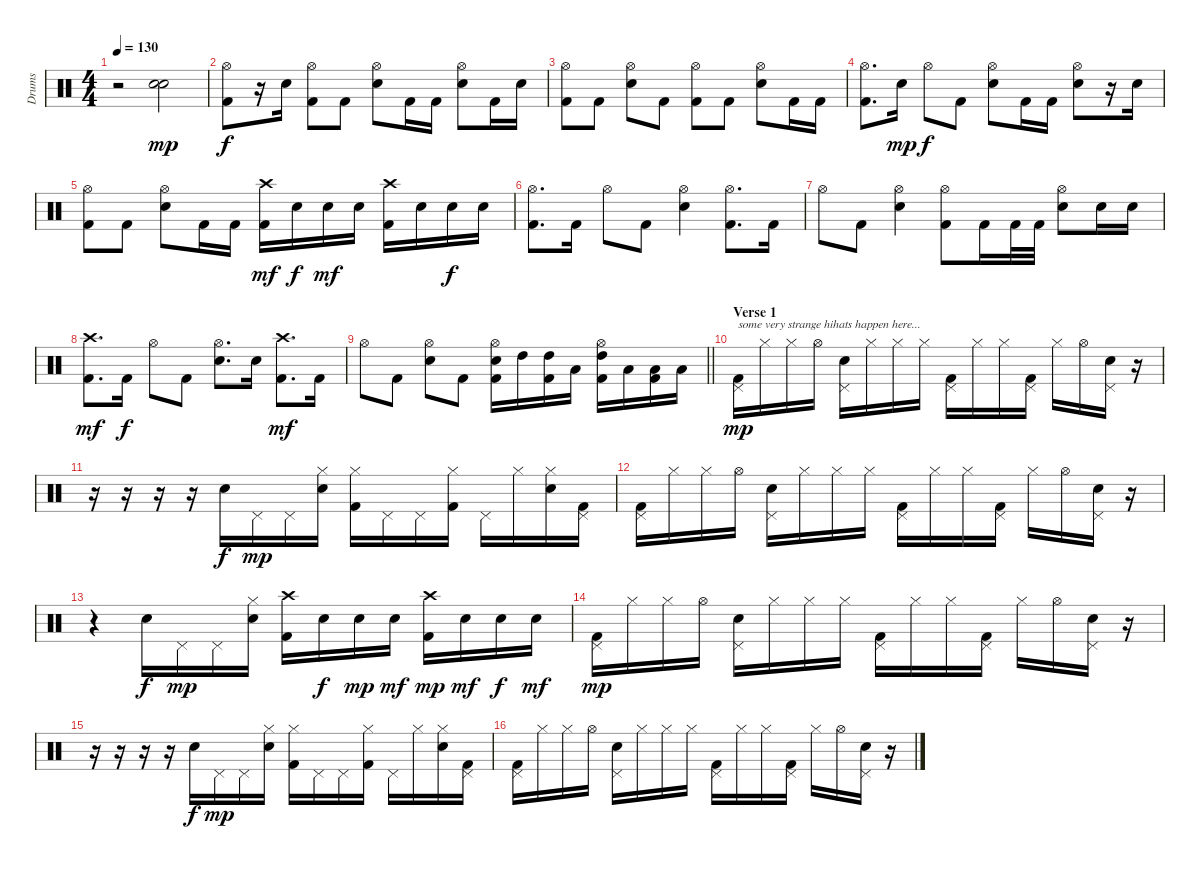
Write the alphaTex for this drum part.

\track ("Drums" "Drums") {instrument percussion}
\staff {score}
\articulation defaults
\ts (4 4)
\tempo 130
\clef neutral
\ks c
r.2{dy mp} ("Hand Clap (hit)" "Electric Snare (hit)").2 |
("Hi-Hat (open)" "Kick (hit) 2").8{dy f} r.16 "Snare (hit) 2".16 ("Hi-Hat (open)" "Kick (hit) 2").8 "Kick (hit) 2".8 ("Hi-Hat (open)" "Snare (hit) 2").8 "Kick (hit) 2".16 "Kick (hit) 2".16 ("Hi-Hat (open)" "Snare (hit) 2").8 "Kick (hit) 2".16 "Snare (hit) 2".16 |
("Hi-Hat (open)" "Kick (hit) 2").8 "Kick (hit) 2".8 ("Hi-Hat (open)" "Snare (hit) 2").8 "Kick (hit) 2".8 ("Hi-Hat (open)" "Kick (hit) 2").8 "Kick (hit) 2".8 ("Hi-Hat (open)" "Snare (hit) 2").8 "Kick (hit) 2".16 "Kick (hit) 2".16 |
("Hi-Hat (open)" "Kick (hit) 2").8{d} "Snare (hit) 2".16{dy mp} "Hi-Hat (open)".8{dy f} "Kick (hit) 2".8 ("Hi-Hat (open)" "Snare (hit) 2").8 "Kick (hit) 2".16 "Kick (hit) 2".16 ("Hi-Hat (open)" "Snare (hit) 2").8 r.16 "Snare (hit) 2".16 |
("Hi-Hat (open)" "Kick (hit) 2").8 "Kick (hit) 2".8 ("Hi-Hat (open)" "Snare (hit) 2").8 "Kick (hit) 2".16 "Kick (hit) 2".16 ("Crash high (hit)" "Kick (hit) 2").16{dy mf} "Snare (hit) 2".16{dy f} "Snare (hit) 2".16{dy mf} "Snare (hit) 2".16 ("Crash high (hit)" "Kick (hit) 2").16 "Snare (hit) 2".16 "Snare (hit) 2".16{dy f} "Snare (hit) 2".16 |
("Hi-Hat (open)" "Kick (hit) 2").8{d} "Kick (hit) 2".16 "Hi-Hat (open)".8 "Kick (hit) 2".8 ("Hi-Hat (open)" "Snare (hit) 2").4 ("Hi-Hat (open)" "Kick (hit) 2").8{d} "Kick (hit) 2".16 |
"Hi-Hat (open)".8 "Kick (hit) 2".8 ("Hi-Hat (open)" "Snare (hit) 2").4 ("Hi-Hat (open)" "Kick (hit) 2").8 "Kick (hit) 2".16 "Kick (hit) 2".32 "Kick (hit) 2".32 ("Hi-Hat (open)" "Snare (hit) 2").8 "Snare (hit) 2".16 "Snare (hit) 2".16 |
("Crash high (hit)" "Kick (hit) 2").8{d dy mf} "Kick (hit) 2".16{dy f} "Hi-Hat (open)".8 "Kick (hit) 2".8 ("Hi-Hat (open)" "Snare (hit) 2").8{d} "Snare (hit) 2".16 ("Crash high (hit)" "Kick (hit) 2").8{d dy mf} "Kick (hit) 2".16 |
\barLineRight lightlight "Hi-Hat (open)".8 "Kick (hit) 2".8
("Hi-Hat (open)" "Snare (hit) 2").8 "Kick (hit) 2".8 ("Hi-Hat (open)" "Snare (hit) 2" "Kick (hit) 2").16 "High Tom (hit)".16 ("High Tom (hit)" "Kick (hit) 2").16 "Low Tom (hit)".16 ("Hi-Hat (open)" "High Tom (hit)" "Kick (hit) 2").16 "Low Tom (hit)".16 ("Low Floor Tom (hit)" "Kick (hit) 2").16 "Low Floor Tom (hit)".16 |
\section ("" "Verse 1")
("Pedal Hi-Hat (hit)" "Kick (hit) 2").16{txt "some very strange hihats happen here..." dy mp} "Hi-Hat (closed)".16 "Hi-Hat (closed)".16 "Hi-Hat (open)".16 ("Pedal Hi-Hat (hit)" "Snare (hit) 2").16 "Hi-Hat (closed)".16 "Hi-Hat (closed)".16 "Hi-Hat (closed)".16 ("Pedal Hi-Hat (hit)" "Kick (hit) 2").16 "Hi-Hat (closed)".16 "Hi-Hat (closed)".16 ("Pedal Hi-Hat (hit)" "Kick (hit) 2").16 "Hi-Hat (closed)".16 "Hi-Hat (open)".16 ("Pedal Hi-Hat (hit)" "Snare (hit) 2").16 r.16 |
r.16 r.16 r.16 r.16 "Snare (hit) 2".16{dy f} "Pedal Hi-Hat (hit)".16{dy mp} "Pedal Hi-Hat (hit)".16 ("Hi-Hat (closed)" "Snare (hit) 2").16 ("Hi-Hat (closed)" "Kick (hit) 2").16 "Pedal Hi-Hat (hit)".16 "Pedal Hi-Hat (hit)".16 ("Hi-Hat (closed)" "Kick (hit) 2").16 "Pedal Hi-Hat (hit)".16 "Hi-Hat (closed)".16 ("Hi-Hat (closed)" "Snare (hit) 2").16 ("Pedal Hi-Hat (hit)" "Kick (hit) 2").16 |
("Pedal Hi-Hat (hit)" "Kick (hit) 2").16 "Hi-Hat (closed)".16 "Hi-Hat (closed)".16 "Hi-Hat (open)".16 ("Pedal Hi-Hat (hit)" "Snare (hit) 2").16 "Hi-Hat (closed)".16 "Hi-Hat (closed)".16 "Hi-Hat (closed)".16 ("Pedal Hi-Hat (hit)" "Kick (hit) 2").16 "Hi-Hat (closed)".16 "Hi-Hat (closed)".16 ("Pedal Hi-Hat (hit)" "Kick (hit) 2").16 "Hi-Hat (closed)".16 "Hi-Hat (open)".16 ("Pedal Hi-Hat (hit)" "Snare (hit) 2").16 r.16 |
r.4 "Snare (hit) 2".16{dy f} "Pedal Hi-Hat (hit)".16{dy mp} "Pedal Hi-Hat (hit)".16 ("Hi-Hat (closed)" "Snare (hit) 2").16 ("Crash high (hit)" "Kick (hit) 2").16 "Snare (hit) 2".16{dy f} "Snare (hit) 2".16{dy mp} "Snare (hit) 2".16{dy mf} ("Crash high (hit)" "Kick (hit) 2").16{dy mp} "Snare (hit) 2".16{dy mf} "Snare (hit) 2".16{dy f} "Snare (hit) 2".16{dy mf} |
("Pedal Hi-Hat (hit)" "Kick (hit) 2").16{dy mp} "Hi-Hat (closed)".16 "Hi-Hat (closed)".16 "Hi-Hat (open)".16 ("Pedal Hi-Hat (hit)" "Snare (hit) 2").16 "Hi-Hat (closed)".16 "Hi-Hat (closed)".16 "Hi-Hat (closed)".16 ("Pedal Hi-Hat (hit)" "Kick (hit) 2").16 "Hi-Hat (closed)".16 "Hi-Hat (closed)".16 ("Pedal Hi-Hat (hit)" "Kick (hit) 2").16 "Hi-Hat (closed)".16 "Hi-Hat (open)".16 ("Pedal Hi-Hat (hit)" "Snare (hit) 2").16 r.16 |
r.16 r.16 r.16 r.16 "Snare (hit) 2".16{dy f} "Pedal Hi-Hat (hit)".16{dy mp} "Pedal Hi-Hat (hit)".16 ("Hi-Hat (closed)" "Snare (hit) 2").16 ("Hi-Hat (closed)" "Kick (hit) 2").16 "Pedal Hi-Hat (hit)".16 "Pedal Hi-Hat (hit)".16 ("Hi-Hat (closed)" "Kick (hit) 2").16 "Pedal Hi-Hat (hit)".16 "Hi-Hat (closed)".16 ("Hi-Hat (closed)" "Snare (hit) 2").16 ("Pedal Hi-Hat (hit)" "Kick (hit) 2").16 |
("Pedal Hi-Hat (hit)" "Kick (hit) 2").16 "Hi-Hat (closed)".16 "Hi-Hat (closed)".16 "Hi-Hat (open)".16 ("Pedal Hi-Hat (hit)" "Snare (hit) 2").16 "Hi-Hat (closed)".16 "Hi-Hat (closed)".16 "Hi-Hat (closed)".16 ("Pedal Hi-Hat (hit)" "Kick (hit) 2").16 "Hi-Hat (closed)".16 "Hi-Hat (closed)".16 ("Pedal Hi-Hat (hit)" "Kick (hit) 2").16 "Hi-Hat (closed)".16 "Hi-Hat (open)".16 ("Pedal Hi-Hat (hit)" "Snare (hit) 2").16 r.16
